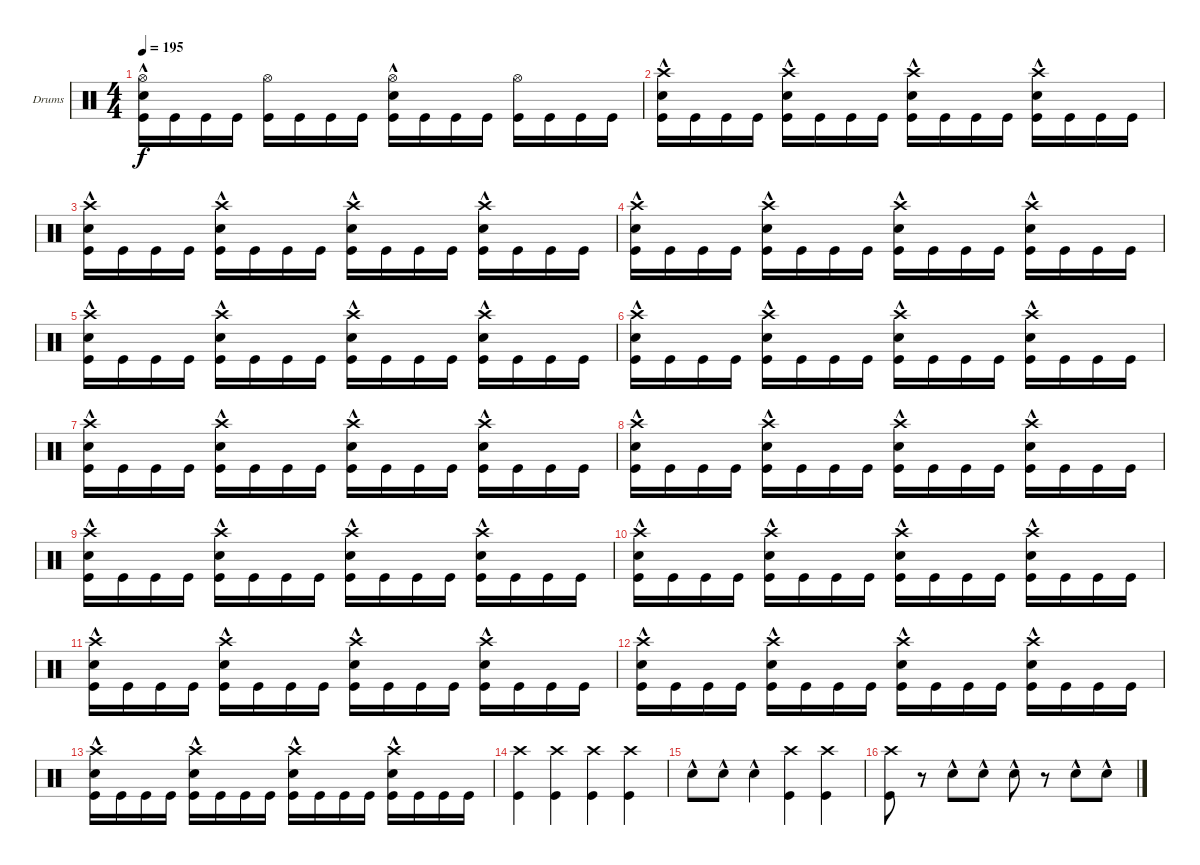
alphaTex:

\defaultSystemsLayout 4
\bracketExtendMode groupsimilarinstruments
\firstSystemTrackNameOrientation horizontal
\otherSystemsTrackNameOrientation horizontal
\track ("Drumkit" "Drums") {instrument percussion}
\staff {score}
\articulation defaults
\ts (4 4)
\tempo 195
\clef neutral
\ks c
("Kick (hit)" "Snare (hit) 2"{hac} "Hi-Hat (open)").16{dy f} "Kick (hit)".16 "Kick (hit)".16 "Kick (hit)".16 ("Kick (hit)" "Hi-Hat (open)").16 "Kick (hit)".16 "Kick (hit)".16 "Kick (hit)".16 ("Kick (hit)" "Snare (hit) 2"{hac} "Hi-Hat (open)").16 "Kick (hit)".16 "Kick (hit)".16 "Kick (hit)".16 ("Kick (hit)" "Hi-Hat (open)").16 "Kick (hit)".16 "Kick (hit)".16 "Kick (hit)".16 |
("Kick (hit)" "Snare (hit) 2"{hac} "Crash high (hit)").16 "Kick (hit)".16 "Kick (hit)".16 "Kick (hit)".16 ("Kick (hit)" "Snare (hit) 2"{hac} "Crash high (hit)").16 "Kick (hit)".16 "Kick (hit)".16 "Kick (hit)".16 ("Kick (hit)" "Snare (hit) 2"{hac} "Crash high (hit)").16 "Kick (hit)".16 "Kick (hit)".16 "Kick (hit)".16 ("Kick (hit)" "Crash high (hit)" "Snare (hit) 2"{hac}).16 "Kick (hit)".16 "Kick (hit)".16 "Kick (hit)".16 |
("Kick (hit)" "Snare (hit) 2"{hac} "Crash high (hit)").16 "Kick (hit)".16 "Kick (hit)".16 "Kick (hit)".16 ("Kick (hit)" "Snare (hit) 2"{hac} "Crash high (hit)").16 "Kick (hit)".16 "Kick (hit)".16 "Kick (hit)".16 ("Kick (hit)" "Snare (hit) 2"{hac} "Crash high (hit)").16 "Kick (hit)".16 "Kick (hit)".16 "Kick (hit)".16 ("Kick (hit)" "Crash high (hit)" "Snare (hit) 2"{hac}).16 "Kick (hit)".16 "Kick (hit)".16 "Kick (hit)".16 |
("Kick (hit)" "Snare (hit) 2"{hac} "Crash high (hit)").16 "Kick (hit)".16 "Kick (hit)".16 "Kick (hit)".16 ("Kick (hit)" "Snare (hit) 2"{hac} "Crash high (hit)").16 "Kick (hit)".16 "Kick (hit)".16 "Kick (hit)".16 ("Kick (hit)" "Snare (hit) 2"{hac} "Crash high (hit)").16 "Kick (hit)".16 "Kick (hit)".16 "Kick (hit)".16 ("Kick (hit)" "Crash high (hit)" "Snare (hit) 2"{hac}).16 "Kick (hit)".16 "Kick (hit)".16 "Kick (hit)".16 |
("Kick (hit)" "Snare (hit) 2"{hac} "Crash high (hit)").16 "Kick (hit)".16 "Kick (hit)".16 "Kick (hit)".16 ("Kick (hit)" "Snare (hit) 2"{hac} "Crash high (hit)").16 "Kick (hit)".16 "Kick (hit)".16 "Kick (hit)".16 ("Kick (hit)" "Snare (hit) 2"{hac} "Crash high (hit)").16 "Kick (hit)".16 "Kick (hit)".16 "Kick (hit)".16 ("Kick (hit)" "Crash high (hit)" "Snare (hit) 2"{hac}).16 "Kick (hit)".16 "Kick (hit)".16 "Kick (hit)".16 |
("Kick (hit)" "Snare (hit) 2"{hac} "Crash high (hit)").16 "Kick (hit)".16 "Kick (hit)".16 "Kick (hit)".16 ("Kick (hit)" "Snare (hit) 2"{hac} "Crash high (hit)").16 "Kick (hit)".16 "Kick (hit)".16 "Kick (hit)".16 ("Kick (hit)" "Snare (hit) 2"{hac} "Crash high (hit)").16 "Kick (hit)".16 "Kick (hit)".16 "Kick (hit)".16 ("Kick (hit)" "Crash high (hit)" "Snare (hit) 2"{hac}).16 "Kick (hit)".16 "Kick (hit)".16 "Kick (hit)".16 |
("Kick (hit)" "Snare (hit) 2"{hac} "Crash high (hit)").16 "Kick (hit)".16 "Kick (hit)".16 "Kick (hit)".16 ("Kick (hit)" "Snare (hit) 2"{hac} "Crash high (hit)").16 "Kick (hit)".16 "Kick (hit)".16 "Kick (hit)".16 ("Kick (hit)" "Snare (hit) 2"{hac} "Crash high (hit)").16 "Kick (hit)".16 "Kick (hit)".16 "Kick (hit)".16 ("Kick (hit)" "Crash high (hit)" "Snare (hit) 2"{hac}).16 "Kick (hit)".16 "Kick (hit)".16 "Kick (hit)".16 |
("Kick (hit)" "Snare (hit) 2"{hac} "Crash high (hit)").16 "Kick (hit)".16 "Kick (hit)".16 "Kick (hit)".16 ("Kick (hit)" "Snare (hit) 2"{hac} "Crash high (hit)").16 "Kick (hit)".16 "Kick (hit)".16 "Kick (hit)".16 ("Kick (hit)" "Snare (hit) 2"{hac} "Crash high (hit)").16 "Kick (hit)".16 "Kick (hit)".16 "Kick (hit)".16 ("Kick (hit)" "Crash high (hit)" "Snare (hit) 2"{hac}).16 "Kick (hit)".16 "Kick (hit)".16 "Kick (hit)".16 |
("Kick (hit)" "Snare (hit) 2"{hac} "Crash high (hit)").16 "Kick (hit)".16 "Kick (hit)".16 "Kick (hit)".16 ("Kick (hit)" "Snare (hit) 2"{hac} "Crash high (hit)").16 "Kick (hit)".16 "Kick (hit)".16 "Kick (hit)".16 ("Kick (hit)" "Snare (hit) 2"{hac} "Crash high (hit)").16 "Kick (hit)".16 "Kick (hit)".16 "Kick (hit)".16 ("Kick (hit)" "Crash high (hit)" "Snare (hit) 2"{hac}).16 "Kick (hit)".16 "Kick (hit)".16 "Kick (hit)".16 |
("Kick (hit)" "Snare (hit) 2"{hac} "Crash high (hit)").16 "Kick (hit)".16 "Kick (hit)".16 "Kick (hit)".16 ("Kick (hit)" "Snare (hit) 2"{hac} "Crash high (hit)").16 "Kick (hit)".16 "Kick (hit)".16 "Kick (hit)".16 ("Kick (hit)" "Snare (hit) 2"{hac} "Crash high (hit)").16 "Kick (hit)".16 "Kick (hit)".16 "Kick (hit)".16 ("Kick (hit)" "Crash high (hit)" "Snare (hit) 2"{hac}).16 "Kick (hit)".16 "Kick (hit)".16 "Kick (hit)".16 |
("Kick (hit)" "Snare (hit) 2"{hac} "Crash high (hit)").16 "Kick (hit)".16 "Kick (hit)".16 "Kick (hit)".16 ("Kick (hit)" "Snare (hit) 2"{hac} "Crash high (hit)").16 "Kick (hit)".16 "Kick (hit)".16 "Kick (hit)".16 ("Kick (hit)" "Snare (hit) 2"{hac} "Crash high (hit)").16 "Kick (hit)".16 "Kick (hit)".16 "Kick (hit)".16 ("Kick (hit)" "Crash high (hit)" "Snare (hit) 2"{hac}).16 "Kick (hit)".16 "Kick (hit)".16 "Kick (hit)".16 |
("Kick (hit)" "Snare (hit) 2"{hac} "Crash high (hit)").16 "Kick (hit)".16 "Kick (hit)".16 "Kick (hit)".16 ("Kick (hit)" "Snare (hit) 2"{hac} "Crash high (hit)").16 "Kick (hit)".16 "Kick (hit)".16 "Kick (hit)".16 ("Kick (hit)" "Snare (hit) 2"{hac} "Crash high (hit)").16 "Kick (hit)".16 "Kick (hit)".16 "Kick (hit)".16 ("Kick (hit)" "Crash high (hit)" "Snare (hit) 2"{hac}).16 "Kick (hit)".16 "Kick (hit)".16 "Kick (hit)".16 |
("Kick (hit)" "Snare (hit) 2"{hac} "Crash high (hit)").16 "Kick (hit)".16 "Kick (hit)".16 "Kick (hit)".16 ("Kick (hit)" "Snare (hit) 2"{hac} "Crash high (hit)").16 "Kick (hit)".16 "Kick (hit)".16 "Kick (hit)".16 ("Kick (hit)" "Snare (hit) 2"{hac} "Crash high (hit)").16 "Kick (hit)".16 "Kick (hit)".16 "Kick (hit)".16 ("Kick (hit)" "Crash high (hit)" "Snare (hit) 2"{hac}).16 "Kick (hit)".16 "Kick (hit)".16 "Kick (hit)".16 |
("Kick (hit)" "Crash high (hit)").4 ("Kick (hit)" "Crash high (hit)").4 ("Kick (hit)" "Crash high (hit)").4 ("Kick (hit)" "Crash high (hit)").4 |
"Snare (hit) 2"{hac}.8 "Snare (hit) 2"{hac}.8 "Snare (hit) 2"{hac}.4 ("Kick (hit)" "Crash high (hit)").4 ("Kick (hit)" "Crash high (hit)").4 |
("Kick (hit)" "Crash high (hit)").8 r.8 "Snare (hit) 2"{hac}.8 "Snare (hit) 2"{hac}.8 "Snare (hit) 2"{hac}.8 r.8 "Snare (hit) 2"{hac}.8 "Snare (hit) 2"{hac}.8
